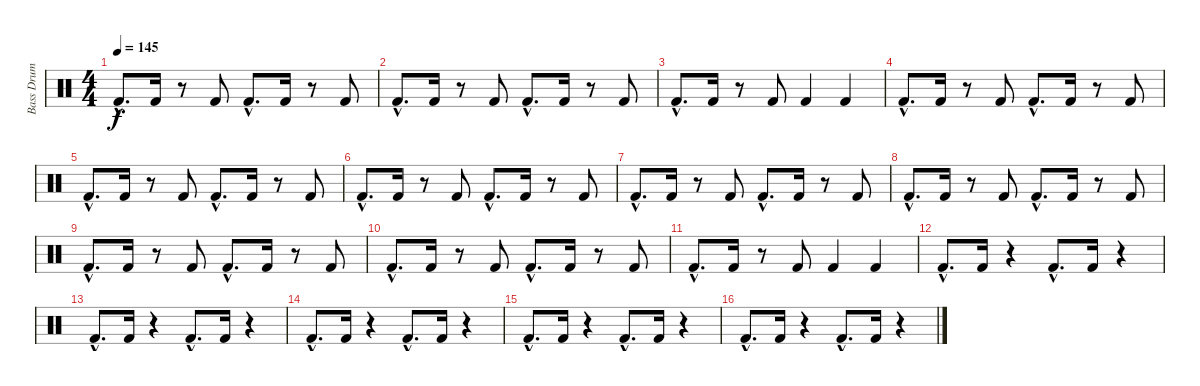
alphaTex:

\track ("Bass Drum" "Bass Drum") {instrument percussion}
\staff {score}
\articulation defaults
\ts (4 4)
\tempo 145
\clef neutral
\ks c "Kick (hit) 2"{hac}.8{d dy f} "Kick (hit) 2".16
r.8 "Kick (hit) 2".8 "Kick (hit) 2"{hac}.8{d} "Kick (hit) 2".16 r.8 "Kick (hit) 2".8 |
"Kick (hit) 2"{hac}.8{d} "Kick (hit) 2".16 r.8 "Kick (hit) 2".8 "Kick (hit) 2"{hac}.8{d} "Kick (hit) 2".16 r.8 "Kick (hit) 2".8 |
"Kick (hit) 2"{hac}.8{d} "Kick (hit) 2".16 r.8 "Kick (hit) 2".8 "Kick (hit) 2".4 "Kick (hit) 2".4 |
"Kick (hit) 2"{hac}.8{d} "Kick (hit) 2".16 r.8 "Kick (hit) 2".8 "Kick (hit) 2"{hac}.8{d} "Kick (hit) 2".16 r.8 "Kick (hit) 2".8 |
"Kick (hit) 2"{hac}.8{d} "Kick (hit) 2".16 r.8 "Kick (hit) 2".8 "Kick (hit) 2"{hac}.8{d} "Kick (hit) 2".16 r.8 "Kick (hit) 2".8 |
"Kick (hit) 2"{hac}.8{d} "Kick (hit) 2".16 r.8 "Kick (hit) 2".8 "Kick (hit) 2"{hac}.8{d} "Kick (hit) 2".16 r.8 "Kick (hit) 2".8 |
"Kick (hit) 2"{hac}.8{d} "Kick (hit) 2".16 r.8 "Kick (hit) 2".8 "Kick (hit) 2"{hac}.8{d} "Kick (hit) 2".16 r.8 "Kick (hit) 2".8 |
"Kick (hit) 2"{hac}.8{d} "Kick (hit) 2".16 r.8 "Kick (hit) 2".8 "Kick (hit) 2"{hac}.8{d} "Kick (hit) 2".16 r.8 "Kick (hit) 2".8 |
"Kick (hit) 2"{hac}.8{d} "Kick (hit) 2".16 r.8 "Kick (hit) 2".8 "Kick (hit) 2"{hac}.8{d} "Kick (hit) 2".16 r.8 "Kick (hit) 2".8 |
"Kick (hit) 2"{hac}.8{d} "Kick (hit) 2".16 r.8 "Kick (hit) 2".8 "Kick (hit) 2"{hac}.8{d} "Kick (hit) 2".16 r.8 "Kick (hit) 2".8 |
"Kick (hit) 2"{hac}.8{d} "Kick (hit) 2".16 r.8 "Kick (hit) 2".8 "Kick (hit) 2".4 "Kick (hit) 2".4 |
"Kick (hit) 2"{hac}.8{d} "Kick (hit) 2".16 r.4 "Kick (hit) 2"{hac}.8{d} "Kick (hit) 2".16 r.4 |
"Kick (hit) 2"{hac}.8{d} "Kick (hit) 2".16 r.4 "Kick (hit) 2"{hac}.8{d} "Kick (hit) 2".16 r.4 |
"Kick (hit) 2"{hac}.8{d} "Kick (hit) 2".16 r.4 "Kick (hit) 2"{hac}.8{d} "Kick (hit) 2".16 r.4 |
"Kick (hit) 2"{hac}.8{d} "Kick (hit) 2".16 r.4 "Kick (hit) 2"{hac}.8{d} "Kick (hit) 2".16 r.4 |
"Kick (hit) 2"{hac}.8{d} "Kick (hit) 2".16 r.4 "Kick (hit) 2"{hac}.8{d} "Kick (hit) 2".16 r.4
